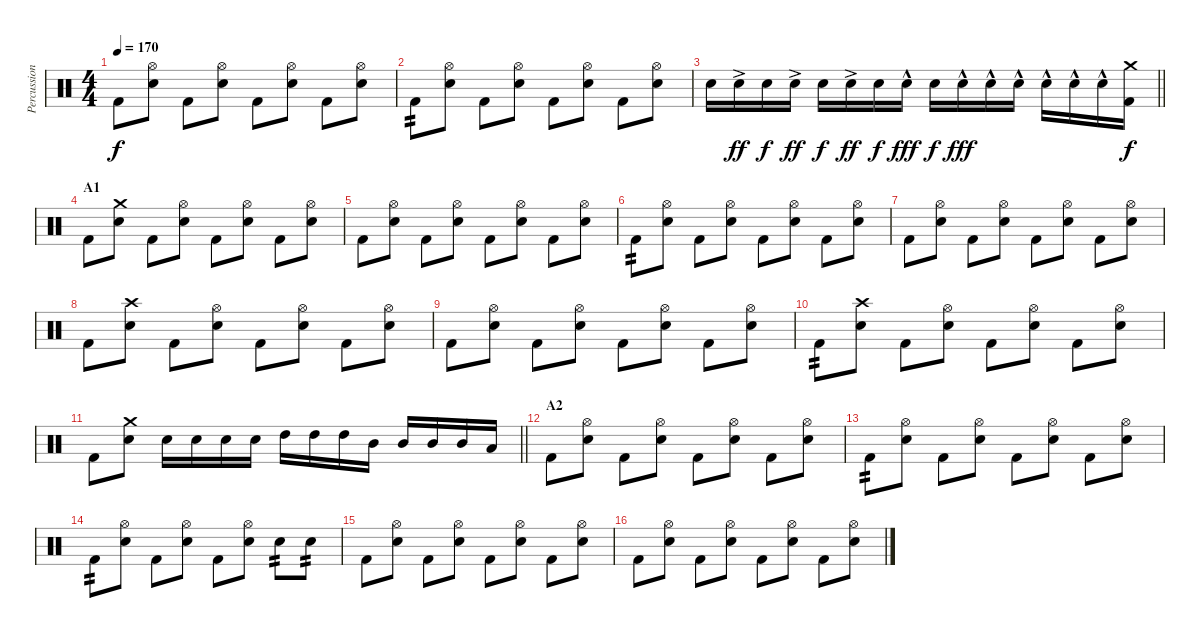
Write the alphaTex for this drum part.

\track ("Percussion" "Percussion") {instrument percussion}
\staff {score}
\articulation defaults
\ts (4 4)
\tempo 170
\clef neutral
\ks c "Kick (hit) 2".8{dy f}
("Hi-Hat (open)" "Electric Snare (hit)").8 "Kick (hit) 2".8 ("Hi-Hat (open)" "Electric Snare (hit)").8 "Kick (hit) 2".8 ("Hi-Hat (open)" "Electric Snare (hit)").8 "Kick (hit) 2".8 ("Hi-Hat (open)" "Electric Snare (hit)").8 |
"Kick (hit) 2".8{tp 2} ("Hi-Hat (open)" "Electric Snare (hit)").8 "Kick (hit) 2".8 ("Hi-Hat (open)" "Electric Snare (hit)").8 "Kick (hit) 2".8 ("Hi-Hat (open)" "Electric Snare (hit)").8 "Kick (hit) 2".8 ("Hi-Hat (open)" "Electric Snare (hit)").8 |
\barLineRight lightlight "Electric Snare (hit)".16 "Electric Snare (hit)"{ac}.16{dy ff} "Electric Snare (hit)".16{dy f} "Electric Snare (hit)"{ac}.16{dy ff} "Electric Snare (hit)".16{dy f} "Electric Snare (hit)"{ac}.16{dy ff} "Electric Snare (hit)".16{dy f} "Electric Snare (hit)"{hac}.16{dy fff} "Electric Snare (hit)".16{dy f} "Electric Snare (hit)"{hac}.16{dy fff} "Electric Snare (hit)"{hac}.16 "Electric Snare (hit)"{hac}.16 "Electric Snare (hit)"{hac}.16 "Electric Snare (hit)"{hac}.16 "Electric Snare (hit)"{hac}.16
("Crash medium (hit)" "Kick (hit) 2").16{dy f} |
\section ("" "A1")
"Kick (hit) 2".8 ("Crash medium (hit)" "Electric Snare (hit)").8 "Kick (hit) 2".8 ("Hi-Hat (open)" "Electric Snare (hit)").8 "Kick (hit) 2".8 ("Hi-Hat (open)" "Electric Snare (hit)").8 "Kick (hit) 2".8 ("Hi-Hat (open)" "Electric Snare (hit)").8 |
"Kick (hit) 2".8 ("Hi-Hat (open)" "Electric Snare (hit)").8 "Kick (hit) 2".8 ("Hi-Hat (open)" "Electric Snare (hit)").8 "Kick (hit) 2".8 ("Hi-Hat (open)" "Electric Snare (hit)").8 "Kick (hit) 2".8 ("Hi-Hat (open)" "Electric Snare (hit)").8 |
"Kick (hit) 2".8{tp 2} ("Hi-Hat (open)" "Electric Snare (hit)").8 "Kick (hit) 2".8 ("Hi-Hat (open)" "Electric Snare (hit)").8 "Kick (hit) 2".8 ("Hi-Hat (open)" "Electric Snare (hit)").8 "Kick (hit) 2".8 ("Hi-Hat (open)" "Electric Snare (hit)").8 |
"Kick (hit) 2".8 ("Hi-Hat (open)" "Electric Snare (hit)").8 "Kick (hit) 2".8 ("Hi-Hat (open)" "Electric Snare (hit)").8 "Kick (hit) 2".8 ("Hi-Hat (open)" "Electric Snare (hit)").8 "Kick (hit) 2".8 ("Hi-Hat (open)" "Electric Snare (hit)").8 |
"Kick (hit) 2".8 ("Crash high (hit)" "Electric Snare (hit)").8 "Kick (hit) 2".8 ("Hi-Hat (open)" "Electric Snare (hit)").8 "Kick (hit) 2".8 ("Hi-Hat (open)" "Electric Snare (hit)").8 "Kick (hit) 2".8 ("Hi-Hat (open)" "Electric Snare (hit)").8 |
"Kick (hit) 2".8 ("Hi-Hat (open)" "Electric Snare (hit)").8 "Kick (hit) 2".8 ("Hi-Hat (open)" "Electric Snare (hit)").8 "Kick (hit) 2".8 ("Hi-Hat (open)" "Electric Snare (hit)").8 "Kick (hit) 2".8 ("Hi-Hat (open)" "Electric Snare (hit)").8 |
"Kick (hit) 2".8{tp 2} ("Crash high (hit)" "Electric Snare (hit)").8 "Kick (hit) 2".8 ("Hi-Hat (open)" "Electric Snare (hit)").8 "Kick (hit) 2".8 ("Hi-Hat (open)" "Electric Snare (hit)").8 "Kick (hit) 2".8 ("Hi-Hat (open)" "Electric Snare (hit)").8 |
\barLineRight lightlight "Kick (hit) 2".8
("Crash medium (hit)" "Electric Snare (hit)").8 "Electric Snare (hit)".16 "Electric Snare (hit)".16 "Electric Snare (hit)".16 "Electric Snare (hit)".16 "High Tom (hit)".16 "High Tom (hit)".16 "High Tom (hit)".16 "Mid Tom (hit)".16 "Mid Tom (hit)".16 "Mid Tom (hit)".16 "Mid Tom (hit)".16 "Low Tom (hit)".16 |
\section ("" "A2")
"Kick (hit) 2".8 ("Hi-Hat (open)" "Electric Snare (hit)").8 "Kick (hit) 2".8 ("Hi-Hat (open)" "Electric Snare (hit)").8 "Kick (hit) 2".8 ("Hi-Hat (open)" "Electric Snare (hit)").8 "Kick (hit) 2".8 ("Hi-Hat (open)" "Electric Snare (hit)").8 |
"Kick (hit) 2".8{tp 2} ("Hi-Hat (open)" "Electric Snare (hit)").8 "Kick (hit) 2".8 ("Hi-Hat (open)" "Electric Snare (hit)").8 "Kick (hit) 2".8 ("Hi-Hat (open)" "Electric Snare (hit)").8 "Kick (hit) 2".8 ("Hi-Hat (open)" "Electric Snare (hit)").8 |
"Kick (hit) 2".8{tp 2} ("Hi-Hat (open)" "Electric Snare (hit)").8 "Kick (hit) 2".8 ("Hi-Hat (open)" "Electric Snare (hit)").8 "Kick (hit) 2".8 ("Hi-Hat (open)" "Electric Snare (hit)").8 "Electric Snare (hit)".8{tp 2} "Electric Snare (hit)".8{tp 2} |
"Kick (hit) 2".8 ("Hi-Hat (open)" "Electric Snare (hit)").8 "Kick (hit) 2".8 ("Hi-Hat (open)" "Electric Snare (hit)").8 "Kick (hit) 2".8 ("Hi-Hat (open)" "Electric Snare (hit)").8 "Kick (hit) 2".8 ("Hi-Hat (open)" "Electric Snare (hit)").8 |
"Kick (hit) 2".8 ("Hi-Hat (open)" "Electric Snare (hit)").8 "Kick (hit) 2".8 ("Hi-Hat (open)" "Electric Snare (hit)").8 "Kick (hit) 2".8 ("Hi-Hat (open)" "Electric Snare (hit)").8 "Kick (hit) 2".8 ("Hi-Hat (open)" "Electric Snare (hit)").8
